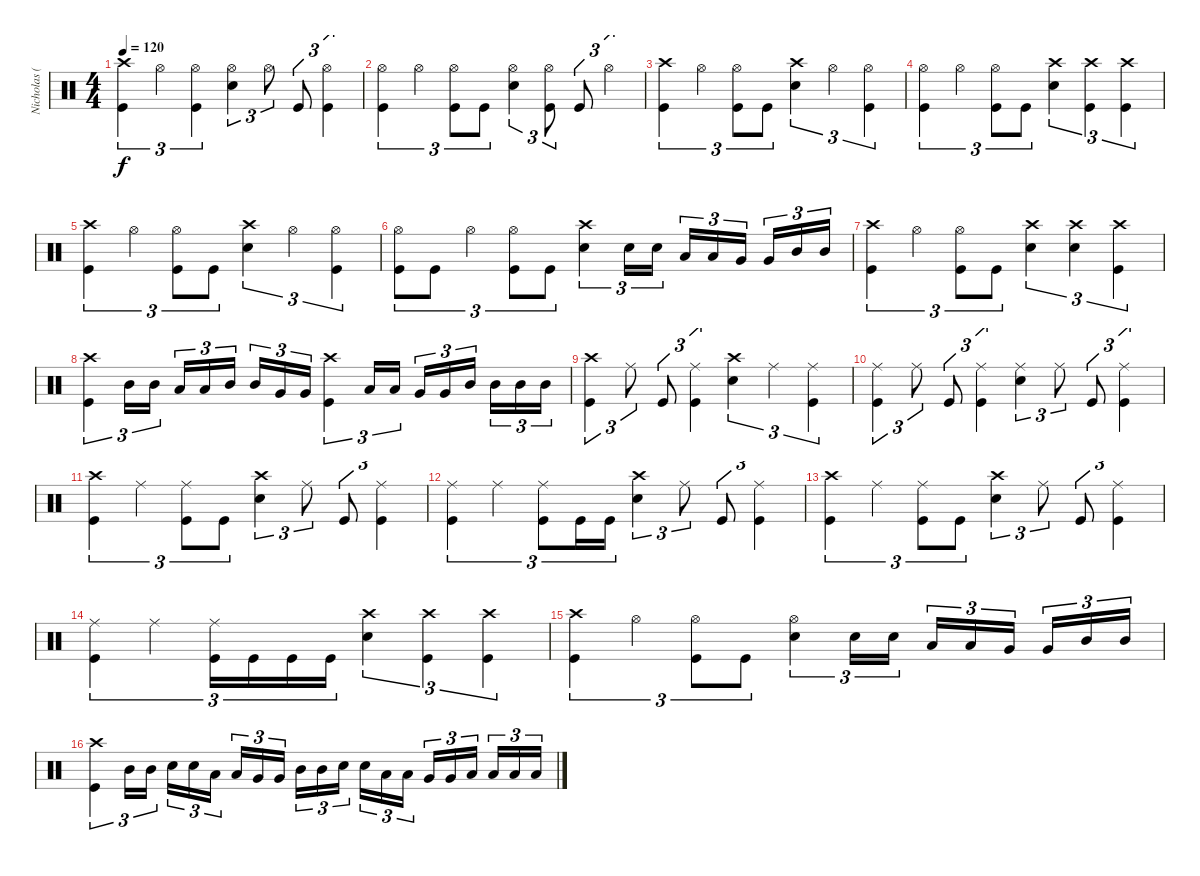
\track ("Nicholas (Drums)" "Nicholas (") {instrument percussion}
\staff {score}
\articulation defaults
\ts (4 4)
\tempo 120
\clef neutral
\ks c
("Crash high (hit)" "Kick (hit)").4{tu (3 2) dy f} "Hi-Hat (open)".4{tu (3 2)} ("Hi-Hat (open)" "Kick (hit)").4{tu (3 2)} ("Hi-Hat (open)" "Electric Snare (hit)").4{tu (3 2)} "Hi-Hat (open)".8{tu (3 2)} "Kick (hit)".8{tu (3 2)} ("Hi-Hat (open)" "Kick (hit)").4{tu (3 2)} |
("Hi-Hat (open)" "Kick (hit)").4{tu (3 2)} "Hi-Hat (open)".4{tu (3 2)} ("Hi-Hat (open)" "Kick (hit)").8{tu (3 2)} "Kick (hit)".8{tu (3 2)} ("Hi-Hat (open)" "Electric Snare (hit)").4{tu (3 2)} ("Hi-Hat (open)" "Kick (hit)").8{tu (3 2)} "Kick (hit)".8{tu (3 2)} "Hi-Hat (open)".4{tu (3 2)} |
("Crash high (hit)" "Kick (hit)").4{tu (3 2)} "Hi-Hat (open)".4{tu (3 2)} ("Hi-Hat (open)" "Kick (hit)").8{tu (3 2)} "Kick (hit)".8{tu (3 2)} ("Crash high (hit)" "Electric Snare (hit)").4{tu (3 2)} "Hi-Hat (open)".4{tu (3 2)} ("Hi-Hat (open)" "Kick (hit)").4{tu (3 2)} |
("Hi-Hat (open)" "Kick (hit)").4{tu (3 2)} "Hi-Hat (open)".4{tu (3 2)} ("Hi-Hat (open)" "Kick (hit)").8{tu (3 2)} "Kick (hit)".8{tu (3 2)} ("Crash high (hit)" "Electric Snare (hit)").4{tu (3 2)} ("Crash high (hit)" "Kick (hit)").4{tu (3 2)} ("Crash high (hit)" "Kick (hit)").4{tu (3 2)} |
("Crash high (hit)" "Kick (hit)").4{tu (3 2)} "Hi-Hat (open)".4{tu (3 2)} ("Hi-Hat (open)" "Kick (hit)").8{tu (3 2)} "Kick (hit)".8{tu (3 2)} ("Crash high (hit)" "Electric Snare (hit)").4{tu (3 2)} "Hi-Hat (open)".4{tu (3 2)} ("Hi-Hat (open)" "Kick (hit)").4{tu (3 2)} |
("Hi-Hat (open)" "Kick (hit)").8{tu (3 2)} "Kick (hit)".8{tu (3 2)} "Hi-Hat (open)".4{tu (3 2)} ("Hi-Hat (open)" "Kick (hit)").8{tu (3 2)} "Kick (hit)".8{tu (3 2)} ("Crash high (hit)" "Electric Snare (hit)").4{tu (3 2)} "Electric Snare (hit)".16{tu (3 2)} "Electric Snare (hit)".16{tu (3 2)} "Low Tom (hit)".16{tu (3 2)} "Low Tom (hit)".16{tu (3 2)} "Very Low Tom (hit)".16{tu (3 2)} "Very Low Tom (hit)".16{tu (3 2)} "Mid Tom (hit)".16{tu (3 2)} "Mid Tom (hit)".16{tu (3 2)} |
("Crash high (hit)" "Kick (hit)").4{tu (3 2)} "Hi-Hat (open)".4{tu (3 2)} ("Hi-Hat (open)" "Kick (hit)").8{tu (3 2)} "Kick (hit)".8{tu (3 2)} ("Crash high (hit)" "Electric Snare (hit)").4{tu (3 2)} ("Crash high (hit)" "Electric Snare (hit)").4{tu (3 2)} ("Crash high (hit)" "Kick (hit)").4{tu (3 2)} |
("Crash high (hit)" "Kick (hit)").4{tu (3 2)} "Mid Tom (hit)".16{tu (3 2)} "Mid Tom (hit)".16{tu (3 2)} "Low Tom (hit)".16{tu (3 2)} "Low Tom (hit)".16{tu (3 2)} "Mid Tom (hit)".16{tu (3 2)} "Mid Tom (hit)".16{tu (3 2)} "Very Low Tom (hit)".16{tu (3 2)} "Very Low Tom (hit)".16{tu (3 2)} ("Crash high (hit)" "Kick (hit)").4{tu (3 2)} "Low Tom (hit)".16{tu (3 2)} "Low Tom (hit)".16{tu (3 2)} "Very Low Tom (hit)".16{tu (3 2)} "Very Low Tom (hit)".16{tu (3 2)} "Mid Tom (hit)".16{tu (3 2)} "Mid Tom (hit)".16{tu (3 2)} "Mid Tom (hit)".16{tu (3 2)} "Mid Tom (hit)".16{tu (3 2)} |
("Crash high (hit)" "Kick (hit)").4{tu (3 2)} "Ride (middle)".8{tu (3 2)} "Kick (hit)".8{tu (3 2)} ("Ride (middle)" "Kick (hit)").4{tu (3 2)} ("Crash high (hit)" "Electric Snare (hit)").4{tu (3 2)} "Ride (middle)".4{tu (3 2)} ("Ride (middle)" "Kick (hit)").4{tu (3 2)} |
("Ride (middle)" "Kick (hit)").4{tu (3 2)} "Ride (middle)".8{tu (3 2)} "Kick (hit)".8{tu (3 2)} ("Ride (middle)" "Kick (hit)").4{tu (3 2)} ("Ride (middle)" "Electric Snare (hit)").4{tu (3 2)} "Ride (middle)".8{tu (3 2)} "Kick (hit)".8{tu (3 2)} ("Ride (middle)" "Kick (hit)").4{tu (3 2)} |
("Crash high (hit)" "Kick (hit)").4{tu (3 2)} "Ride (middle)".4{tu (3 2)} ("Ride (middle)" "Kick (hit)").8{tu (3 2)} "Kick (hit)".8{tu (3 2)} ("Crash high (hit)" "Electric Snare (hit)").4{tu (3 2)} "Ride (middle)".8{tu (3 2)} "Kick (hit)".8{tu (3 2)} ("Ride (middle)" "Kick (hit)").4{tu (3 2)} |
("Ride (middle)" "Kick (hit)").4{tu (3 2)} "Ride (middle)".4{tu (3 2)} ("Ride (middle)" "Kick (hit)").8{tu (3 2)} "Kick (hit)".16{tu (3 2)} "Kick (hit)".16{tu (3 2)} ("Crash high (hit)" "Electric Snare (hit)").4{tu (3 2)} "Ride (middle)".8{tu (3 2)} "Kick (hit)".8{tu (3 2)} ("Ride (middle)" "Kick (hit)").4{tu (3 2)} |
("Crash high (hit)" "Kick (hit)").4{tu (3 2)} "Ride (middle)".4{tu (3 2)} ("Ride (middle)" "Kick (hit)").8{tu (3 2)} "Kick (hit)".8{tu (3 2)} ("Crash high (hit)" "Electric Snare (hit)").4{tu (3 2)} "Ride (middle)".8{tu (3 2)} "Kick (hit)".8{tu (3 2)} ("Ride (middle)" "Kick (hit)").4{tu (3 2)} |
("Ride (middle)" "Kick (hit)").4{tu (3 2)} "Ride (middle)".4{tu (3 2)} ("Ride (middle)" "Kick (hit)").16{tu (3 2)} "Kick (hit)".16{tu (3 2)} "Kick (hit)".16{tu (3 2)} "Kick (hit)".16{tu (3 2)} ("Crash high (hit)" "Electric Snare (hit)").4{tu (3 2)} ("Crash high (hit)" "Kick (hit)").4{tu (3 2)} ("Crash high (hit)" "Kick (hit)").4{tu (3 2)} |
("Crash high (hit)" "Kick (hit)").4{tu (3 2)} "Hi-Hat (open)".4{tu (3 2)} ("Hi-Hat (open)" "Kick (hit)").8{tu (3 2)} "Kick (hit)".8{tu (3 2)} ("Hi-Hat (open)" "Electric Snare (hit)").4{tu (3 2)} "Electric Snare (hit)".16{tu (3 2)} "Electric Snare (hit)".16{tu (3 2)} "Low Tom (hit)".16{tu (3 2)} "Low Tom (hit)".16{tu (3 2)} "Very Low Tom (hit)".16{tu (3 2)} "Very Low Tom (hit)".16{tu (3 2)} "Mid Tom (hit)".16{tu (3 2)} "Mid Tom (hit)".16{tu (3 2)} |
("Crash high (hit)" "Kick (hit)").4{tu (3 2)} "Mid Tom (hit)".16{tu (3 2)} "Mid Tom (hit)".16{tu (3 2)} "Electric Snare (hit)".16{tu (3 2)} "Electric Snare (hit)".16{tu (3 2)} "Low Tom (hit)".16{tu (3 2)} "Low Tom (hit)".16{tu (3 2)} "Very Low Tom (hit)".16{tu (3 2)} "Very Low Tom (hit)".16{tu (3 2)} "Mid Tom (hit)".16{tu (3 2)} "Mid Tom (hit)".16{tu (3 2)} "Electric Snare (hit)".16{tu (3 2)} "Electric Snare (hit)".16{tu (3 2)} "Low Tom (hit)".16{tu (3 2)} "Low Tom (hit)".16{tu (3 2)} "Very Low Tom (hit)".16{tu (3 2)} "Very Low Tom (hit)".16{tu (3 2)} "Low Floor Tom (hit)".16{tu (3 2)} "Low Floor Tom (hit)".16{tu (3 2)} "Low Floor Tom (hit)".16{tu (3 2)} "Low Floor Tom (hit)".16{tu (3 2)}
